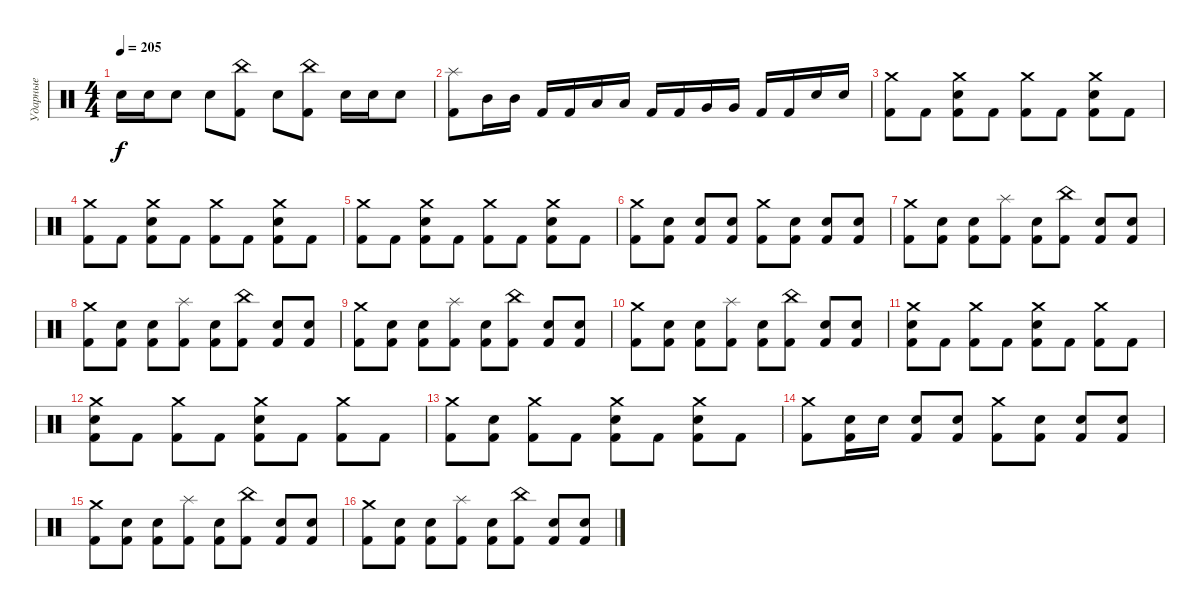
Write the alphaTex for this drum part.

\track ("Ударные" "Ударные") {instrument percussion}
\staff {score}
\articulation defaults
\ts (4 4)
\tempo 205
\clef neutral
\ks c "Electric Snare (hit)".16{dy f} "Electric Snare (hit)".16 "Electric Snare (hit)".8 "Electric Snare (hit)".8
("China (hit)" "Kick (hit) 2").8 "Electric Snare (hit)".8 ("China (hit)" "Kick (hit) 2").8 "Electric Snare (hit)".16 "Electric Snare (hit)".16 "Electric Snare (hit)".8 |
("Splash (hit)" "Kick (hit) 2").8 "Mid Tom (hit)".16 "Mid Tom (hit)".16 "Kick (hit) 2".16 "Kick (hit) 2".16 "Low Tom (hit)".16 "Low Tom (hit)".16 "Kick (hit) 2".16 "Kick (hit) 2".16 "Very Low Tom (hit)".16 "Very Low Tom (hit)".16 "Kick (hit) 2".16 "Kick (hit) 2".16 "Electric Snare (hit)".16 "Electric Snare (hit)".16 |
("Crash medium (hit)" "Kick (hit) 2").8 "Kick (hit) 2".8 ("Crash medium (hit)" "Electric Snare (hit)" "Kick (hit) 2").8 "Kick (hit) 2".8 ("Crash medium (hit)" "Kick (hit) 2").8 "Kick (hit) 2".8 ("Crash medium (hit)" "Electric Snare (hit)" "Kick (hit) 2").8 "Kick (hit) 2".8 |
("Crash medium (hit)" "Kick (hit) 2").8 "Kick (hit) 2".8 ("Crash medium (hit)" "Electric Snare (hit)" "Kick (hit) 2").8 "Kick (hit) 2".8 ("Crash medium (hit)" "Kick (hit) 2").8 "Kick (hit) 2".8 ("Crash medium (hit)" "Electric Snare (hit)" "Kick (hit) 2").8 "Kick (hit) 2".8 |
("Crash medium (hit)" "Kick (hit) 2").8 "Kick (hit) 2".8 ("Crash medium (hit)" "Electric Snare (hit)" "Kick (hit) 2").8 "Kick (hit) 2".8 ("Crash medium (hit)" "Kick (hit) 2").8 "Kick (hit) 2".8 ("Crash medium (hit)" "Electric Snare (hit)" "Kick (hit) 2").8 "Kick (hit) 2".8 |
("Crash medium (hit)" "Kick (hit) 2").8 ("Electric Snare (hit)" "Kick (hit) 2").8 ("Electric Snare (hit)" "Kick (hit) 2").8 ("Electric Snare (hit)" "Kick (hit) 2").8 ("Crash medium (hit)" "Kick (hit) 2").8 ("Electric Snare (hit)" "Kick (hit) 2").8 ("Electric Snare (hit)" "Kick (hit) 2").8 ("Electric Snare (hit)" "Kick (hit) 2").8 |
("Crash medium (hit)" "Kick (hit) 2").8 ("Electric Snare (hit)" "Kick (hit) 2").8 ("Electric Snare (hit)" "Kick (hit) 2").8 ("Splash (hit)" "Kick (hit) 2").8 ("Electric Snare (hit)" "Kick (hit) 2").8 ("China (hit)" "Kick (hit) 2").8 ("Electric Snare (hit)" "Kick (hit) 2").8 ("Electric Snare (hit)" "Kick (hit) 2").8 |
("Crash medium (hit)" "Kick (hit) 2").8 ("Electric Snare (hit)" "Kick (hit) 2").8 ("Electric Snare (hit)" "Kick (hit) 2").8 ("Splash (hit)" "Kick (hit) 2").8 ("Electric Snare (hit)" "Kick (hit) 2").8 ("China (hit)" "Kick (hit) 2").8 ("Electric Snare (hit)" "Kick (hit) 2").8 ("Electric Snare (hit)" "Kick (hit) 2").8 |
("Crash medium (hit)" "Kick (hit) 2").8 ("Electric Snare (hit)" "Kick (hit) 2").8 ("Electric Snare (hit)" "Kick (hit) 2").8 ("Splash (hit)" "Kick (hit) 2").8 ("Electric Snare (hit)" "Kick (hit) 2").8 ("China (hit)" "Kick (hit) 2").8 ("Electric Snare (hit)" "Kick (hit) 2").8 ("Electric Snare (hit)" "Kick (hit) 2").8 |
("Crash medium (hit)" "Kick (hit) 2").8 ("Electric Snare (hit)" "Kick (hit) 2").8 ("Electric Snare (hit)" "Kick (hit) 2").8 ("Splash (hit)" "Kick (hit) 2").8 ("Electric Snare (hit)" "Kick (hit) 2").8 ("China (hit)" "Kick (hit) 2").8 ("Electric Snare (hit)" "Kick (hit) 2").8 ("Electric Snare (hit)" "Kick (hit) 2").8 |
("Crash medium (hit)" "Electric Snare (hit)" "Kick (hit) 2").8 "Kick (hit) 2".8 ("Crash medium (hit)" "Kick (hit) 2").8 "Kick (hit) 2".8 ("Crash medium (hit)" "Electric Snare (hit)" "Kick (hit) 2").8 "Kick (hit) 2".8 ("Crash medium (hit)" "Kick (hit) 2").8 "Kick (hit) 2".8 |
("Crash medium (hit)" "Electric Snare (hit)" "Kick (hit) 2").8 "Kick (hit) 2".8 ("Crash medium (hit)" "Kick (hit) 2").8 "Kick (hit) 2".8 ("Crash medium (hit)" "Electric Snare (hit)" "Kick (hit) 2").8 "Kick (hit) 2".8 ("Crash medium (hit)" "Kick (hit) 2").8 "Kick (hit) 2".8 |
("Crash medium (hit)" "Kick (hit) 2").8 ("Electric Snare (hit)" "Kick (hit) 2").8 ("Crash medium (hit)" "Kick (hit) 2").8 "Kick (hit) 2".8 ("Crash medium (hit)" "Electric Snare (hit)" "Kick (hit) 2").8 "Kick (hit) 2".8 ("Crash medium (hit)" "Electric Snare (hit)" "Kick (hit) 2").8 "Kick (hit) 2".8 |
("Crash medium (hit)" "Kick (hit) 2").8 ("Electric Snare (hit)" "Kick (hit) 2").16 "Electric Snare (hit)".16 ("Electric Snare (hit)" "Kick (hit) 2").8 ("Electric Snare (hit)" "Kick (hit) 2").8 ("Crash medium (hit)" "Kick (hit) 2").8 ("Electric Snare (hit)" "Kick (hit) 2").8 ("Electric Snare (hit)" "Kick (hit) 2").8 ("Electric Snare (hit)" "Kick (hit) 2").8 |
("Crash medium (hit)" "Kick (hit) 2").8 ("Electric Snare (hit)" "Kick (hit) 2").8 ("Electric Snare (hit)" "Kick (hit) 2").8 ("Splash (hit)" "Kick (hit) 2").8 ("Electric Snare (hit)" "Kick (hit) 2").8 ("China (hit)" "Kick (hit) 2").8 ("Electric Snare (hit)" "Kick (hit) 2").8 ("Electric Snare (hit)" "Kick (hit) 2").8 |
("Crash medium (hit)" "Kick (hit) 2").8 ("Electric Snare (hit)" "Kick (hit) 2").8 ("Electric Snare (hit)" "Kick (hit) 2").8 ("Splash (hit)" "Kick (hit) 2").8 ("Electric Snare (hit)" "Kick (hit) 2").8 ("China (hit)" "Kick (hit) 2").8 ("Electric Snare (hit)" "Kick (hit) 2").8 ("Electric Snare (hit)" "Kick (hit) 2").8
